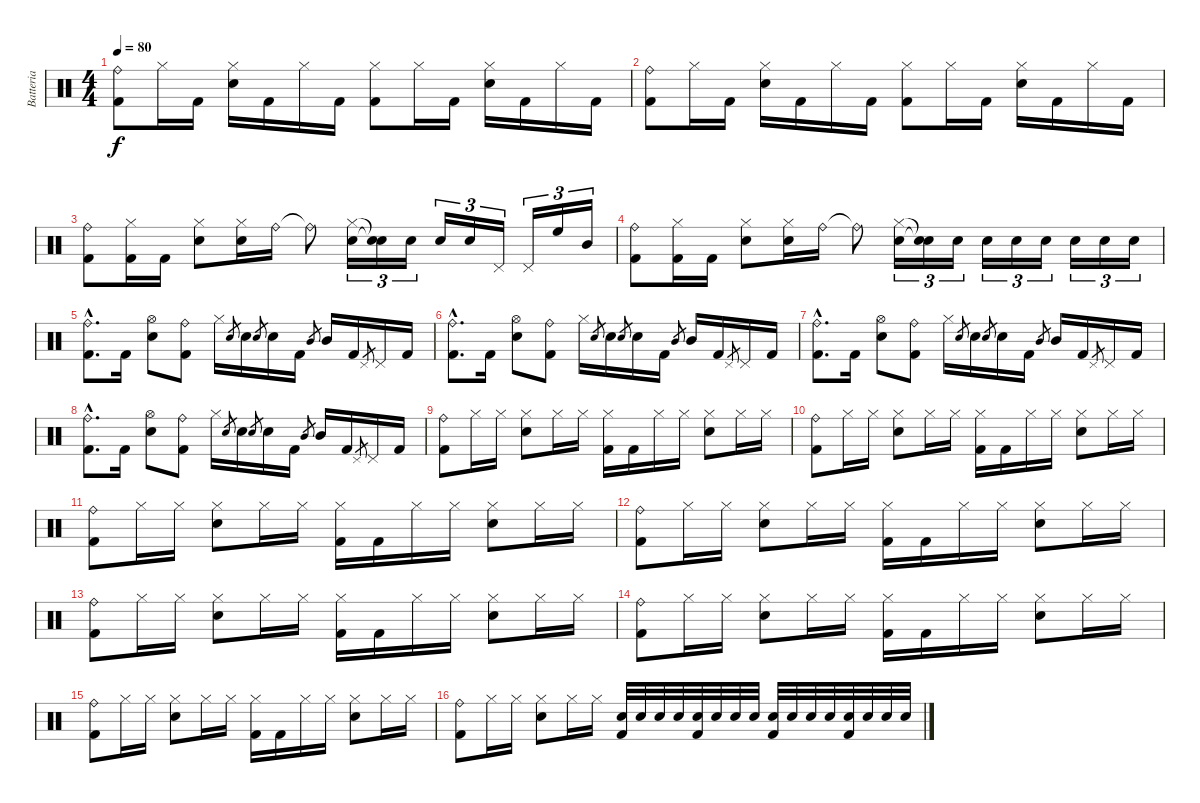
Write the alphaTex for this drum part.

\track ("Batteria" "Batteria") {instrument percussion}
\staff {score}
\articulation defaults
\ts (4 4)
\tempo 80
\clef neutral
\ks c
("Ride (bell)" "Kick (hit) 2").8{dy f} "Hi-Hat (closed)".16 "Kick (hit) 2".16 ("Hi-Hat (closed)" "Snare (hit) 2").16 "Kick (hit) 2".16 "Hi-Hat (closed)".16 "Kick (hit) 2".16 ("Hi-Hat (closed)" "Kick (hit) 2").8 "Hi-Hat (closed)".16 "Kick (hit) 2".16 ("Hi-Hat (closed)" "Snare (hit) 2").16 "Kick (hit) 2".16 "Hi-Hat (closed)".16 "Kick (hit) 2".16 |
("Ride (bell)" "Kick (hit) 2").8 "Hi-Hat (closed)".16 "Kick (hit) 2".16 ("Hi-Hat (closed)" "Snare (hit) 2").16 "Kick (hit) 2".16 "Hi-Hat (closed)".16 "Kick (hit) 2".16 ("Hi-Hat (closed)" "Kick (hit) 2").8 "Hi-Hat (closed)".16 "Kick (hit) 2".16 ("Hi-Hat (closed)" "Snare (hit) 2").16 "Kick (hit) 2".16 "Hi-Hat (closed)".16 "Kick (hit) 2".16 |
("Ride (bell)" "Kick (hit) 2").8 ("Hi-Hat (closed)" "Kick (hit) 2").16 "Kick (hit) 2".16 ("Hi-Hat (closed)" "Snare (hit) 2").8 ("Hi-Hat (closed)" "Snare (hit) 2").16 "Ride (bell)".16 "Ride (bell)"{t}.8 ("Hi-Hat (closed)" "Snare (hit) 2").16{tu (3 2)} ("Snare (hit)"{t} "Snare (hit)"{t}).16{tu (3 2)} "Snare (hit) 2".16{tu (3 2)} "Snare (hit) 2".16{tu (3 2)} "Snare (hit) 2".16{tu (3 2)} "Pedal Hi-Hat (hit)".16{tu (3 2)} "Pedal Hi-Hat (hit)".16{tu (3 2)} "High Floor Tom (hit)".16{tu (3 2)} "Mid Tom (hit)".16{tu (3 2)} |
("Ride (bell)" "Kick (hit) 2").8 ("Hi-Hat (closed)" "Kick (hit) 2").16 "Kick (hit) 2".16 ("Hi-Hat (closed)" "Snare (hit) 2").8 ("Hi-Hat (closed)" "Snare (hit) 2").16 "Ride (bell)".16 "Ride (bell)"{t}.8 ("Hi-Hat (closed)" "Snare (hit) 2").16{tu (3 2)} ("Snare (hit)"{t} "Snare (hit)"{t}).16{tu (3 2)} "Snare (hit) 2".16{tu (3 2)} "Snare (hit) 2".16{tu (3 2)} "Snare (hit) 2".16{tu (3 2)} "Snare (hit) 2".16{tu (3 2)} "Snare (hit) 2".16{tu (3 2)} "Snare (hit) 2".16{tu (3 2)} "Snare (hit) 2".16{tu (3 2)} |
("Ride (bell)"{hac} "Kick (hit) 2"{hac}).8{d} "Kick (hit) 2".16 ("Hi-Hat (open)" "Snare (hit) 2").8 ("Ride (bell)" "Kick (hit) 2").8 "Hi-Hat (closed)".16 "Snare (hit) 2".8{gr} "Snare (hit) 2".16 "Snare (hit) 2".8{gr} "Snare (hit) 2".16 "Kick (hit) 2".16 "Mid Tom (hit)".8{gr} "Mid Tom (hit)".16 "Kick (hit) 2".16 "Pedal Hi-Hat (hit)".8{gr} "Pedal Hi-Hat (hit)".16 "Kick (hit) 2".16 |
("Ride (bell)"{hac} "Kick (hit) 2"{hac}).8{d} "Kick (hit) 2".16 ("Hi-Hat (open)" "Snare (hit) 2").8 ("Ride (bell)" "Kick (hit) 2").8 "Hi-Hat (closed)".16 "Snare (hit) 2".8{gr} "Snare (hit) 2".16 "Snare (hit) 2".8{gr} "Snare (hit) 2".16 "Kick (hit) 2".16 "Mid Tom (hit)".8{gr} "Mid Tom (hit)".16 "Kick (hit) 2".16 "Pedal Hi-Hat (hit)".8{gr} "Pedal Hi-Hat (hit)".16 "Kick (hit) 2".16 |
("Ride (bell)"{hac} "Kick (hit) 2"{hac}).8{d} "Kick (hit) 2".16 ("Hi-Hat (open)" "Snare (hit) 2").8 ("Ride (bell)" "Kick (hit) 2").8 "Hi-Hat (closed)".16 "Snare (hit) 2".8{gr} "Snare (hit) 2".16 "Snare (hit) 2".8{gr} "Snare (hit) 2".16 "Kick (hit) 2".16 "Mid Tom (hit)".8{gr} "Mid Tom (hit)".16 "Kick (hit) 2".16 "Pedal Hi-Hat (hit)".8{gr} "Pedal Hi-Hat (hit)".16 "Kick (hit) 2".16 |
("Ride (bell)"{hac} "Kick (hit) 2"{hac}).8{d} "Kick (hit) 2".16 ("Hi-Hat (open)" "Snare (hit) 2").8 ("Ride (bell)" "Kick (hit) 2").8 "Hi-Hat (closed)".16 "Snare (hit) 2".8{gr} "Snare (hit) 2".16 "Snare (hit) 2".8{gr} "Snare (hit) 2".16 "Kick (hit) 2".16 "Mid Tom (hit)".8{gr} "Mid Tom (hit)".16 "Kick (hit) 2".16 "Pedal Hi-Hat (hit)".8{gr} "Pedal Hi-Hat (hit)".16 "Kick (hit) 2".16 |
("Ride (bell)" "Kick (hit) 2").8 "Hi-Hat (closed)".16 "Hi-Hat (closed)".16 ("Hi-Hat (closed)" "Snare (hit) 2").8 "Hi-Hat (closed)".16 "Hi-Hat (closed)".16 ("Hi-Hat (closed)" "Kick (hit) 2").16 "Kick (hit) 2".16 "Hi-Hat (closed)".16 "Hi-Hat (closed)".16 ("Hi-Hat (closed)" "Snare (hit) 2").8 "Hi-Hat (closed)".16 "Hi-Hat (closed)".16 |
("Ride (bell)" "Kick (hit) 2").8 "Hi-Hat (closed)".16 "Hi-Hat (closed)".16 ("Hi-Hat (closed)" "Snare (hit) 2").8 "Hi-Hat (closed)".16 "Hi-Hat (closed)".16 ("Hi-Hat (closed)" "Kick (hit) 2").16 "Kick (hit) 2".16 "Hi-Hat (closed)".16 "Hi-Hat (closed)".16 ("Hi-Hat (closed)" "Snare (hit) 2").8 "Hi-Hat (closed)".16 "Hi-Hat (closed)".16 |
("Ride (bell)" "Kick (hit) 2").8 "Hi-Hat (closed)".16 "Hi-Hat (closed)".16 ("Hi-Hat (closed)" "Snare (hit) 2").8 "Hi-Hat (closed)".16 "Hi-Hat (closed)".16 ("Hi-Hat (closed)" "Kick (hit) 2").16 "Kick (hit) 2".16 "Hi-Hat (closed)".16 "Hi-Hat (closed)".16 ("Hi-Hat (closed)" "Snare (hit) 2").8 "Hi-Hat (closed)".16 "Hi-Hat (closed)".16 |
("Ride (bell)" "Kick (hit) 2").8 "Hi-Hat (closed)".16 "Hi-Hat (closed)".16 ("Hi-Hat (closed)" "Snare (hit) 2").8 "Hi-Hat (closed)".16 "Hi-Hat (closed)".16 ("Hi-Hat (closed)" "Kick (hit) 2").16 "Kick (hit) 2".16 "Hi-Hat (closed)".16 "Hi-Hat (closed)".16 ("Hi-Hat (closed)" "Snare (hit) 2").8 "Hi-Hat (closed)".16 "Hi-Hat (closed)".16 |
("Ride (bell)" "Kick (hit) 2").8 "Hi-Hat (closed)".16 "Hi-Hat (closed)".16 ("Hi-Hat (closed)" "Snare (hit) 2").8 "Hi-Hat (closed)".16 "Hi-Hat (closed)".16 ("Hi-Hat (closed)" "Kick (hit) 2").16 "Kick (hit) 2".16 "Hi-Hat (closed)".16 "Hi-Hat (closed)".16 ("Hi-Hat (closed)" "Snare (hit) 2").8 "Hi-Hat (closed)".16 "Hi-Hat (closed)".16 |
("Ride (bell)" "Kick (hit) 2").8 "Hi-Hat (closed)".16 "Hi-Hat (closed)".16 ("Hi-Hat (closed)" "Snare (hit) 2").8 "Hi-Hat (closed)".16 "Hi-Hat (closed)".16 ("Hi-Hat (closed)" "Kick (hit) 2").16 "Kick (hit) 2".16 "Hi-Hat (closed)".16 "Hi-Hat (closed)".16 ("Hi-Hat (closed)" "Snare (hit) 2").8 "Hi-Hat (closed)".16 "Hi-Hat (closed)".16 |
("Ride (bell)" "Kick (hit) 2").8 "Hi-Hat (closed)".16 "Hi-Hat (closed)".16 ("Hi-Hat (closed)" "Snare (hit) 2").8 "Hi-Hat (closed)".16 "Hi-Hat (closed)".16 ("Hi-Hat (closed)" "Kick (hit) 2").16 "Kick (hit) 2".16 "Hi-Hat (closed)".16 "Hi-Hat (closed)".16 ("Hi-Hat (closed)" "Snare (hit) 2").8 "Hi-Hat (closed)".16 "Hi-Hat (closed)".16 |
("Ride (bell)" "Kick (hit) 2").8 "Hi-Hat (closed)".16 "Hi-Hat (closed)".16 ("Hi-Hat (closed)" "Snare (hit) 2").8 "Hi-Hat (closed)".16 "Hi-Hat (closed)".16 ("Snare (hit) 2" "Kick (hit) 2").32 "Snare (hit) 2".32 "Snare (hit) 2".32 "Snare (hit) 2".32 ("Snare (hit) 2" "Kick (hit) 2").32 "Snare (hit) 2".32 "Snare (hit) 2".32 "Snare (hit) 2".32 ("Snare (hit) 2" "Kick (hit) 2").32 "Snare (hit) 2".32 "Snare (hit) 2".32 "Snare (hit) 2".32 ("Snare (hit) 2" "Kick (hit) 2").32 "Snare (hit) 2".32 "Snare (hit) 2".32 "Snare (hit) 2".32
